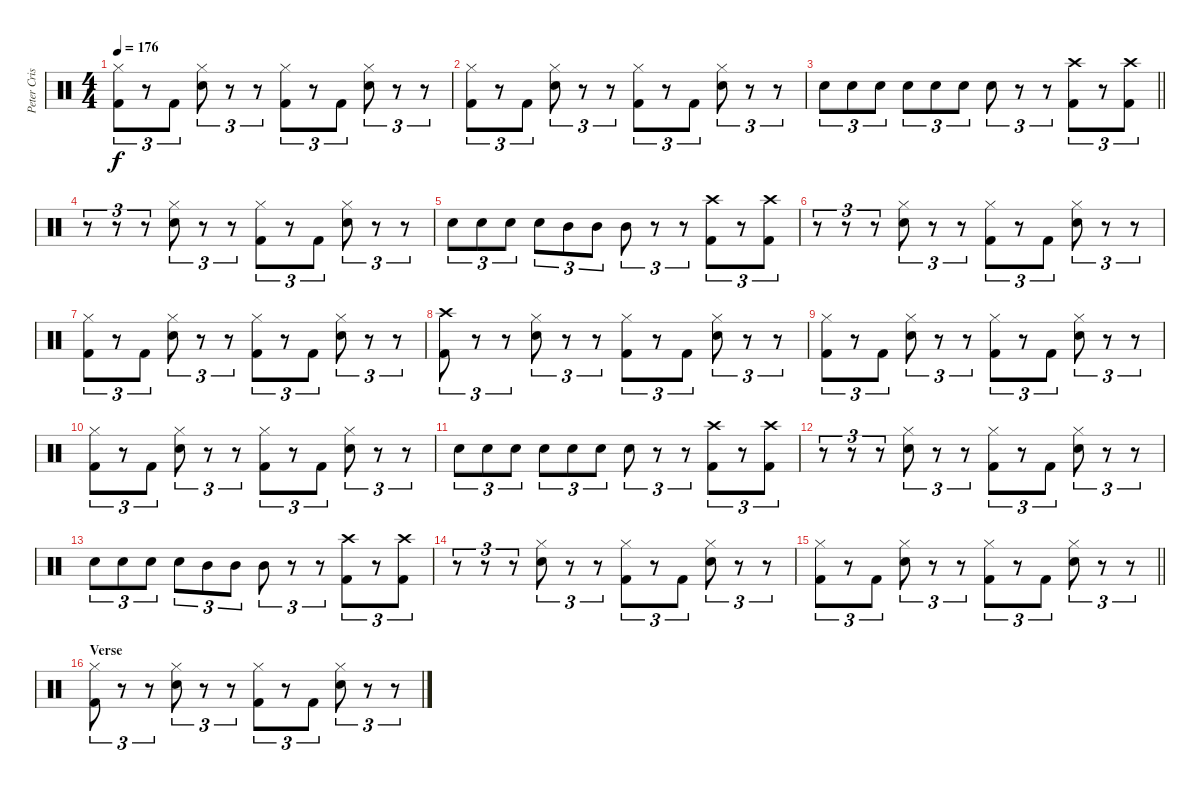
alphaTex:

\track ("Peter Criss" "Peter Cris") {instrument percussion}
\staff {score}
\articulation defaults
\ts (4 4)
\tempo 176
\clef neutral
\ks c
("Hi-Hat (closed)" "Kick (hit) 2").8{tu (3 2) dy f} r.8{tu (3 2)} "Kick (hit) 2".8{tu (3 2)} ("Hi-Hat (closed)" "Electric Snare (hit)").8{tu (3 2)} r.8{tu (3 2)} r.8{tu (3 2)} ("Hi-Hat (closed)" "Kick (hit) 2").8{tu (3 2)} r.8{tu (3 2)} "Kick (hit) 2".8{tu (3 2)} ("Hi-Hat (closed)" "Electric Snare (hit)").8{tu (3 2)} r.8{tu (3 2)} r.8{tu (3 2)} |
("Hi-Hat (closed)" "Kick (hit) 2").8{tu (3 2)} r.8{tu (3 2)} "Kick (hit) 2".8{tu (3 2)} ("Hi-Hat (closed)" "Electric Snare (hit)").8{tu (3 2)} r.8{tu (3 2)} r.8{tu (3 2)} ("Hi-Hat (closed)" "Kick (hit) 2").8{tu (3 2)} r.8{tu (3 2)} "Kick (hit) 2".8{tu (3 2)} ("Hi-Hat (closed)" "Electric Snare (hit)").8{tu (3 2)} r.8{tu (3 2)} r.8{tu (3 2)} |
\barLineRight lightlight "Electric Snare (hit)".8{tu (3 2)} "Electric Snare (hit)".8{tu (3 2)} "Electric Snare (hit)".8{tu (3 2)} "Electric Snare (hit)".8{tu (3 2)} "Electric Snare (hit)".8{tu (3 2)} "Electric Snare (hit)".8{tu (3 2)} "Electric Snare (hit)".8{tu (3 2)}
r.8{tu (3 2)} r.8{tu (3 2)} ("Crash high (hit)" "Kick (hit) 2").8{tu (3 2)} r.8{tu (3 2)} ("Crash high (hit)" "Kick (hit) 2").8{tu (3 2)} |
r.8{tu (3 2)} r.8{tu (3 2)} r.8{tu (3 2)} ("Hi-Hat (closed)" "Electric Snare (hit)").8{tu (3 2)} r.8{tu (3 2)} r.8{tu (3 2)} ("Hi-Hat (closed)" "Kick (hit) 2").8{tu (3 2)} r.8{tu (3 2)} "Kick (hit) 2".8{tu (3 2)} ("Hi-Hat (closed)" "Electric Snare (hit)").8{tu (3 2)} r.8{tu (3 2)} r.8{tu (3 2)} |
"Electric Snare (hit)".8{tu (3 2)} "Electric Snare (hit)".8{tu (3 2)} "Electric Snare (hit)".8{tu (3 2)} "Electric Snare (hit)".8{tu (3 2)} "Mid Tom (hit)".8{tu (3 2)} "Mid Tom (hit)".8{tu (3 2)} "Mid Tom (hit)".8{tu (3 2)} r.8{tu (3 2)} r.8{tu (3 2)} ("Crash high (hit)" "Kick (hit) 2").8{tu (3 2)} r.8{tu (3 2)} ("Crash high (hit)" "Kick (hit) 2").8{tu (3 2)} |
r.8{tu (3 2)} r.8{tu (3 2)} r.8{tu (3 2)} ("Hi-Hat (closed)" "Electric Snare (hit)").8{tu (3 2)} r.8{tu (3 2)} r.8{tu (3 2)} ("Hi-Hat (closed)" "Kick (hit) 2").8{tu (3 2)} r.8{tu (3 2)} "Kick (hit) 2".8{tu (3 2)} ("Hi-Hat (closed)" "Electric Snare (hit)").8{tu (3 2)} r.8{tu (3 2)} r.8{tu (3 2)} |
("Hi-Hat (closed)" "Kick (hit) 2").8{tu (3 2)} r.8{tu (3 2)} "Kick (hit) 2".8{tu (3 2)} ("Hi-Hat (closed)" "Electric Snare (hit)").8{tu (3 2)} r.8{tu (3 2)} r.8{tu (3 2)} ("Hi-Hat (closed)" "Kick (hit) 2").8{tu (3 2)} r.8{tu (3 2)} "Kick (hit) 2".8{tu (3 2)} ("Hi-Hat (closed)" "Electric Snare (hit)").8{tu (3 2)} r.8{tu (3 2)} r.8{tu (3 2)} |
("Crash high (hit)" "Kick (hit) 2").8{tu (3 2)} r.8{tu (3 2)} r.8{tu (3 2)} ("Hi-Hat (closed)" "Electric Snare (hit)").8{tu (3 2)} r.8{tu (3 2)} r.8{tu (3 2)} ("Hi-Hat (closed)" "Kick (hit) 2").8{tu (3 2)} r.8{tu (3 2)} "Kick (hit) 2".8{tu (3 2)} ("Hi-Hat (closed)" "Electric Snare (hit)").8{tu (3 2)} r.8{tu (3 2)} r.8{tu (3 2)} |
("Hi-Hat (closed)" "Kick (hit) 2").8{tu (3 2)} r.8{tu (3 2)} "Kick (hit) 2".8{tu (3 2)} ("Hi-Hat (closed)" "Electric Snare (hit)").8{tu (3 2)} r.8{tu (3 2)} r.8{tu (3 2)} ("Hi-Hat (closed)" "Kick (hit) 2").8{tu (3 2)} r.8{tu (3 2)} "Kick (hit) 2".8{tu (3 2)} ("Hi-Hat (closed)" "Electric Snare (hit)").8{tu (3 2)} r.8{tu (3 2)} r.8{tu (3 2)} |
("Hi-Hat (closed)" "Kick (hit) 2").8{tu (3 2)} r.8{tu (3 2)} "Kick (hit) 2".8{tu (3 2)} ("Hi-Hat (closed)" "Electric Snare (hit)").8{tu (3 2)} r.8{tu (3 2)} r.8{tu (3 2)} ("Hi-Hat (closed)" "Kick (hit) 2").8{tu (3 2)} r.8{tu (3 2)} "Kick (hit) 2".8{tu (3 2)} ("Hi-Hat (closed)" "Electric Snare (hit)").8{tu (3 2)} r.8{tu (3 2)} r.8{tu (3 2)} |
"Electric Snare (hit)".8{tu (3 2)} "Electric Snare (hit)".8{tu (3 2)} "Electric Snare (hit)".8{tu (3 2)} "Electric Snare (hit)".8{tu (3 2)} "Electric Snare (hit)".8{tu (3 2)} "Electric Snare (hit)".8{tu (3 2)} "Electric Snare (hit)".8{tu (3 2)} r.8{tu (3 2)} r.8{tu (3 2)} ("Crash high (hit)" "Kick (hit) 2").8{tu (3 2)} r.8{tu (3 2)} ("Crash high (hit)" "Kick (hit) 2").8{tu (3 2)} |
r.8{tu (3 2)} r.8{tu (3 2)} r.8{tu (3 2)} ("Hi-Hat (closed)" "Electric Snare (hit)").8{tu (3 2)} r.8{tu (3 2)} r.8{tu (3 2)} ("Hi-Hat (closed)" "Kick (hit) 2").8{tu (3 2)} r.8{tu (3 2)} "Kick (hit) 2".8{tu (3 2)} ("Hi-Hat (closed)" "Electric Snare (hit)").8{tu (3 2)} r.8{tu (3 2)} r.8{tu (3 2)} |
"Electric Snare (hit)".8{tu (3 2)} "Electric Snare (hit)".8{tu (3 2)} "Electric Snare (hit)".8{tu (3 2)} "Electric Snare (hit)".8{tu (3 2)} "Mid Tom (hit)".8{tu (3 2)} "Mid Tom (hit)".8{tu (3 2)} "Mid Tom (hit)".8{tu (3 2)} r.8{tu (3 2)} r.8{tu (3 2)} ("Crash high (hit)" "Kick (hit) 2").8{tu (3 2)} r.8{tu (3 2)} ("Crash high (hit)" "Kick (hit) 2").8{tu (3 2)} |
r.8{tu (3 2)} r.8{tu (3 2)} r.8{tu (3 2)} ("Hi-Hat (closed)" "Electric Snare (hit)").8{tu (3 2)} r.8{tu (3 2)} r.8{tu (3 2)} ("Hi-Hat (closed)" "Kick (hit) 2").8{tu (3 2)} r.8{tu (3 2)} "Kick (hit) 2".8{tu (3 2)} ("Hi-Hat (closed)" "Electric Snare (hit)").8{tu (3 2)} r.8{tu (3 2)} r.8{tu (3 2)} |
\barLineRight lightlight
("Hi-Hat (closed)" "Kick (hit) 2").8{tu (3 2)} r.8{tu (3 2)} "Kick (hit) 2".8{tu (3 2)} ("Hi-Hat (closed)" "Electric Snare (hit)").8{tu (3 2)} r.8{tu (3 2)} r.8{tu (3 2)} ("Hi-Hat (closed)" "Kick (hit) 2").8{tu (3 2)} r.8{tu (3 2)} "Kick (hit) 2".8{tu (3 2)} ("Hi-Hat (closed)" "Electric Snare (hit)").8{tu (3 2)} r.8{tu (3 2)} r.8{tu (3 2)} |
\section ("" "Verse")
("Hi-Hat (closed)" "Kick (hit) 2").8{tu (3 2)} r.8{tu (3 2)} r.8{tu (3 2)} ("Hi-Hat (closed)" "Electric Snare (hit)").8{tu (3 2)} r.8{tu (3 2)} r.8{tu (3 2)} ("Hi-Hat (closed)" "Kick (hit) 2").8{tu (3 2)} r.8{tu (3 2)} "Kick (hit) 2".8{tu (3 2)} ("Hi-Hat (closed)" "Electric Snare (hit)").8{tu (3 2)} r.8{tu (3 2)} r.8{tu (3 2)}
